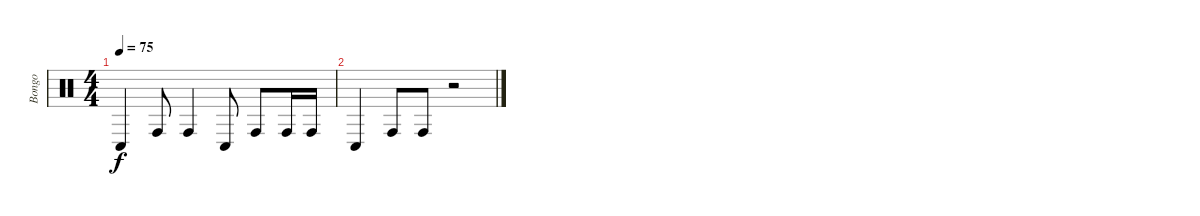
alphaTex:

\track ("Bongo" "Bongo") {instrument percussion}
\staff {score}
\articulation defaults
\ts (4 4)
\tempo 75
\clef neutral
\ks c "Conga low (hit)".4{dy f} "Conga high (hit)".8 "Conga high (hit)".4 "Conga low (hit)".8 "Conga high (hit)".8 "Conga high (hit)".16 "Conga high (hit)".16
|
"Conga low (hit)".4 "Conga high (hit)".8 "Conga high (hit)".8 r.2
